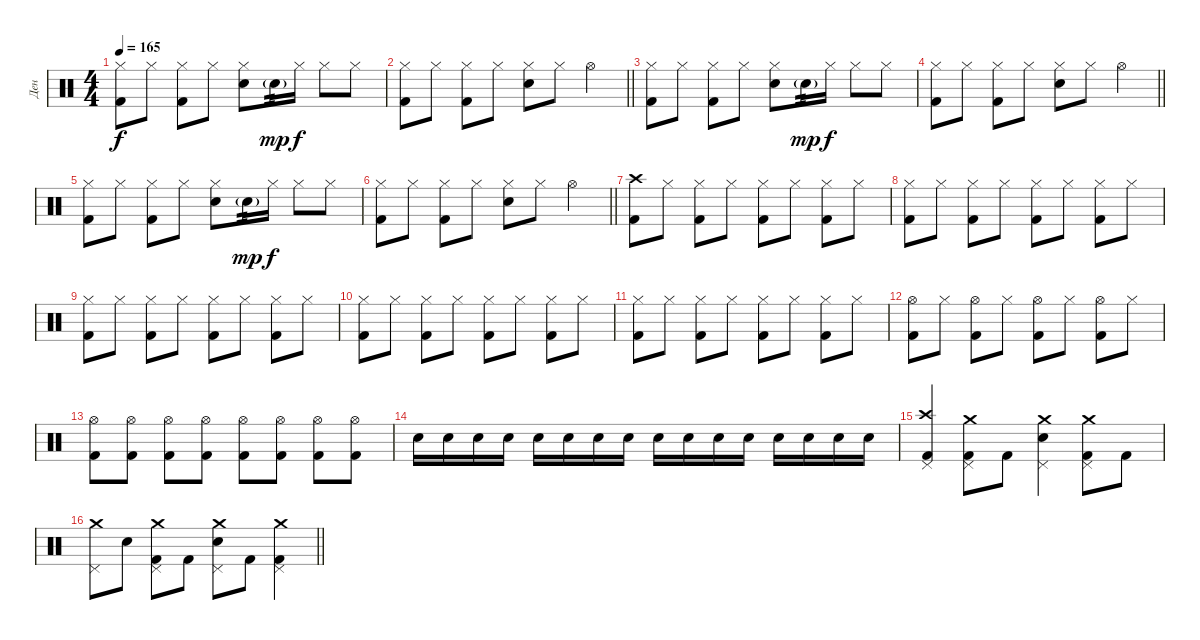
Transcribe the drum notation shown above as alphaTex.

\track ("Ден" "Ден") {instrument percussion}
\staff {score}
\articulation defaults
\ts (4 4)
\tempo 165
\clef neutral
\ks c
("Hi-Hat (closed)" "Kick (hit) 2").8{dy f} "Hi-Hat (closed)".8 ("Hi-Hat (closed)" "Kick (hit) 2").8 "Hi-Hat (closed)".8 ("Hi-Hat (closed)" "Snare (hit) 2").8 "Snare (hit) 2"{g}.16{tp 2 dy mp} "Hi-Hat (closed)".16{dy f} "Hi-Hat (closed)".8 "Hi-Hat (closed)".8 |
\barLineRight lightlight
("Hi-Hat (closed)" "Kick (hit) 2").8 "Hi-Hat (closed)".8 ("Hi-Hat (closed)" "Kick (hit) 2").8 "Hi-Hat (closed)".8 ("Hi-Hat (closed)" "Snare (hit) 2").8 "Hi-Hat (closed)".8 "Hi-Hat (open)".4 |
("Hi-Hat (closed)" "Kick (hit) 2").8 "Hi-Hat (closed)".8 ("Hi-Hat (closed)" "Kick (hit) 2").8 "Hi-Hat (closed)".8 ("Hi-Hat (closed)" "Snare (hit) 2").8 "Snare (hit) 2"{g}.16{tp 2 dy mp} "Hi-Hat (closed)".16{dy f} "Hi-Hat (closed)".8 "Hi-Hat (closed)".8 |
\barLineRight lightlight
("Hi-Hat (closed)" "Kick (hit) 2").8 "Hi-Hat (closed)".8 ("Hi-Hat (closed)" "Kick (hit) 2").8 "Hi-Hat (closed)".8 ("Hi-Hat (closed)" "Snare (hit) 2").8 "Hi-Hat (closed)".8 "Hi-Hat (open)".4 |
("Hi-Hat (closed)" "Kick (hit) 2").8 "Hi-Hat (closed)".8 ("Hi-Hat (closed)" "Kick (hit) 2").8 "Hi-Hat (closed)".8 ("Hi-Hat (closed)" "Snare (hit) 2").8 "Snare (hit) 2"{g}.16{tp 2 dy mp} "Hi-Hat (closed)".16{dy f} "Hi-Hat (closed)".8 "Hi-Hat (closed)".8 |
\barLineRight lightlight
("Hi-Hat (closed)" "Kick (hit) 2").8 "Hi-Hat (closed)".8 ("Hi-Hat (closed)" "Kick (hit) 2").8 "Hi-Hat (closed)".8 ("Hi-Hat (closed)" "Snare (hit) 2").8 "Hi-Hat (closed)".8 "Hi-Hat (open)".4 |
("Crash high (hit)" "Kick (hit) 2").8 "Hi-Hat (closed)".8 ("Hi-Hat (closed)" "Kick (hit) 2").8 "Hi-Hat (closed)".8 ("Hi-Hat (closed)" "Kick (hit) 2").8 "Hi-Hat (closed)".8 ("Hi-Hat (closed)" "Kick (hit) 2").8 "Hi-Hat (closed)".8 |
("Hi-Hat (closed)" "Kick (hit) 2").8 "Hi-Hat (closed)".8 ("Hi-Hat (closed)" "Kick (hit) 2").8 "Hi-Hat (closed)".8 ("Hi-Hat (closed)" "Kick (hit) 2").8 "Hi-Hat (closed)".8 ("Hi-Hat (closed)" "Kick (hit) 2").8 "Hi-Hat (closed)".8 |
("Hi-Hat (closed)" "Kick (hit) 2").8 "Hi-Hat (closed)".8 ("Hi-Hat (closed)" "Kick (hit) 2").8 "Hi-Hat (closed)".8 ("Hi-Hat (closed)" "Kick (hit) 2").8 "Hi-Hat (closed)".8 ("Hi-Hat (closed)" "Kick (hit) 2").8 "Hi-Hat (closed)".8 |
("Hi-Hat (closed)" "Kick (hit) 2").8 "Hi-Hat (closed)".8 ("Hi-Hat (closed)" "Kick (hit) 2").8 "Hi-Hat (closed)".8 ("Hi-Hat (closed)" "Kick (hit) 2").8 "Hi-Hat (closed)".8 ("Hi-Hat (closed)" "Kick (hit) 2").8 "Hi-Hat (closed)".8 |
("Hi-Hat (closed)" "Kick (hit) 2").8 "Hi-Hat (closed)".8 ("Hi-Hat (closed)" "Kick (hit) 2").8 "Hi-Hat (closed)".8 ("Hi-Hat (closed)" "Kick (hit) 2").8 "Hi-Hat (closed)".8 ("Hi-Hat (closed)" "Kick (hit) 2").8 "Hi-Hat (closed)".8 |
("Hi-Hat (open)" "Kick (hit) 2").8 "Hi-Hat (closed)".8 ("Hi-Hat (open)" "Kick (hit) 2").8 "Hi-Hat (closed)".8 ("Hi-Hat (open)" "Kick (hit) 2").8 "Hi-Hat (closed)".8 ("Hi-Hat (open)" "Kick (hit) 2").8 "Hi-Hat (closed)".8 |
("Hi-Hat (open)" "Kick (hit) 2").8 ("Hi-Hat (open)" "Kick (hit) 2").8 ("Hi-Hat (open)" "Kick (hit) 2").8 ("Hi-Hat (open)" "Kick (hit) 2").8 ("Hi-Hat (open)" "Kick (hit) 2").8 ("Hi-Hat (open)" "Kick (hit) 2").8 ("Hi-Hat (open)" "Kick (hit) 2").8 ("Hi-Hat (open)" "Kick (hit) 2").8 |
"Snare (hit) 2".16 "Snare (hit) 2".16 "Snare (hit) 2".16 "Snare (hit) 2".16 "Snare (hit) 2".16 "Snare (hit) 2".16 "Snare (hit) 2".16 "Snare (hit) 2".16 "Snare (hit) 2".16 "Snare (hit) 2".16 "Snare (hit) 2".16 "Snare (hit) 2".16 "Snare (hit) 2".16 "Snare (hit) 2".16 "Snare (hit) 2".16 "Snare (hit) 2".16 |
("Crash high (hit)" "Kick (hit) 2" "Pedal Hi-Hat (hit)").4 ("Crash medium (hit)" "Kick (hit) 2" "Pedal Hi-Hat (hit)").8 "Kick (hit) 2".8 ("Crash medium (hit)" "Snare (hit) 2" "Pedal Hi-Hat (hit)").4 ("Crash medium (hit)" "Kick (hit) 2" "Pedal Hi-Hat (hit)").8 "Kick (hit) 2".8 |
\barLineRight lightlight
("Crash medium (hit)" "Pedal Hi-Hat (hit)").8 "Snare (hit) 2".8 ("Crash medium (hit)" "Kick (hit) 2" "Pedal Hi-Hat (hit)").8 "Kick (hit) 2".8 ("Crash medium (hit)" "Snare (hit) 2" "Pedal Hi-Hat (hit)").8 "Kick (hit) 2".8 ("Crash medium (hit)" "Kick (hit) 2" "Pedal Hi-Hat (hit)").4
